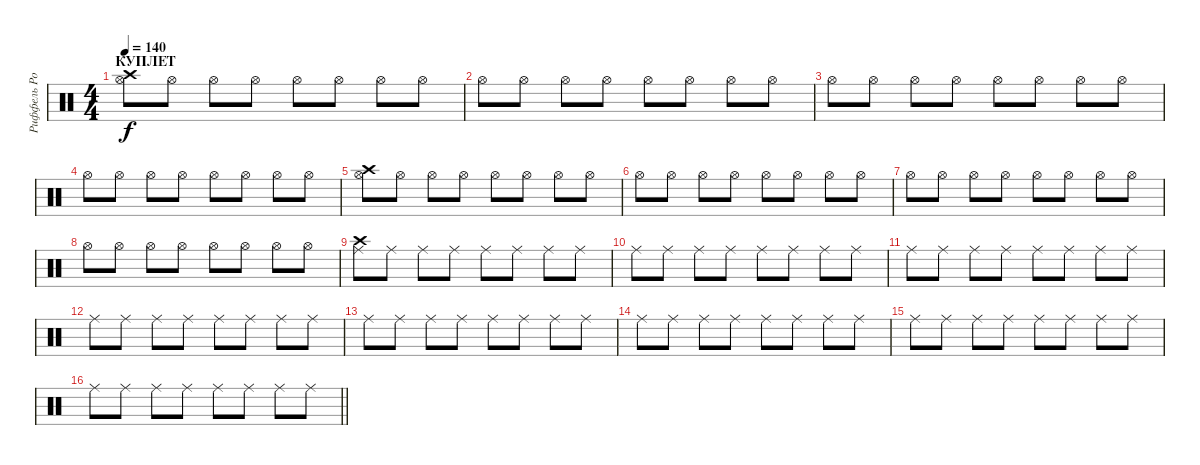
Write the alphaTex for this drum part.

\track ("Риффель Роман (хэты)" "Риффель Ро") {instrument percussion}
\staff {score}
\articulation defaults
\ts (4 4)
\section ("" "КУПЛЕТ")
\tempo 140
\clef neutral
\ks c
("Hi-Hat (open)" "Crash high (hit)").8{dy f} "Hi-Hat (open)".8 "Hi-Hat (open)".8 "Hi-Hat (open)".8 "Hi-Hat (open)".8 "Hi-Hat (open)".8 "Hi-Hat (open)".8 "Hi-Hat (open)".8 |
"Hi-Hat (open)".8 "Hi-Hat (open)".8 "Hi-Hat (open)".8 "Hi-Hat (open)".8 "Hi-Hat (open)".8 "Hi-Hat (open)".8 "Hi-Hat (open)".8 "Hi-Hat (open)".8 |
"Hi-Hat (open)".8 "Hi-Hat (open)".8 "Hi-Hat (open)".8 "Hi-Hat (open)".8 "Hi-Hat (open)".8 "Hi-Hat (open)".8 "Hi-Hat (open)".8 "Hi-Hat (open)".8 |
"Hi-Hat (open)".8 "Hi-Hat (open)".8 "Hi-Hat (open)".8 "Hi-Hat (open)".8 "Hi-Hat (open)".8 "Hi-Hat (open)".8 "Hi-Hat (open)".8 "Hi-Hat (open)".8 |
("Hi-Hat (open)" "Crash high (hit)").8 "Hi-Hat (open)".8 "Hi-Hat (open)".8 "Hi-Hat (open)".8 "Hi-Hat (open)".8 "Hi-Hat (open)".8 "Hi-Hat (open)".8 "Hi-Hat (open)".8 |
"Hi-Hat (open)".8 "Hi-Hat (open)".8 "Hi-Hat (open)".8 "Hi-Hat (open)".8 "Hi-Hat (open)".8 "Hi-Hat (open)".8 "Hi-Hat (open)".8 "Hi-Hat (open)".8 |
"Hi-Hat (open)".8 "Hi-Hat (open)".8 "Hi-Hat (open)".8 "Hi-Hat (open)".8 "Hi-Hat (open)".8 "Hi-Hat (open)".8 "Hi-Hat (open)".8 "Hi-Hat (open)".8 |
"Hi-Hat (open)".8 "Hi-Hat (open)".8 "Hi-Hat (open)".8 "Hi-Hat (open)".8 "Hi-Hat (open)".8 "Hi-Hat (open)".8 "Hi-Hat (open)".8 "Hi-Hat (open)".8 |
("Ride (middle)" "Crash high (hit)").8 "Ride (middle)".8 "Ride (middle)".8 "Ride (middle)".8 "Ride (middle)".8 "Ride (middle)".8 "Ride (middle)".8 "Ride (middle)".8 |
"Ride (middle)".8 "Ride (middle)".8 "Ride (middle)".8 "Ride (middle)".8 "Ride (middle)".8 "Ride (middle)".8 "Ride (middle)".8 "Ride (middle)".8 |
"Ride (middle)".8 "Ride (middle)".8 "Ride (middle)".8 "Ride (middle)".8 "Ride (middle)".8 "Ride (middle)".8 "Ride (middle)".8 "Ride (middle)".8 |
"Ride (middle)".8 "Ride (middle)".8 "Ride (middle)".8 "Ride (middle)".8 "Ride (middle)".8 "Ride (middle)".8 "Ride (middle)".8 "Ride (middle)".8 |
"Ride (middle)".8 "Ride (middle)".8 "Ride (middle)".8 "Ride (middle)".8 "Ride (middle)".8 "Ride (middle)".8 "Ride (middle)".8 "Ride (middle)".8 |
"Ride (middle)".8 "Ride (middle)".8 "Ride (middle)".8 "Ride (middle)".8 "Ride (middle)".8 "Ride (middle)".8 "Ride (middle)".8 "Ride (middle)".8 |
"Ride (middle)".8 "Ride (middle)".8 "Ride (middle)".8 "Ride (middle)".8 "Ride (middle)".8 "Ride (middle)".8 "Ride (middle)".8 "Ride (middle)".8 |
\barLineRight lightlight "Ride (middle)".8 "Ride (middle)".8 "Ride (middle)".8 "Ride (middle)".8 "Ride (middle)".8 "Ride (middle)".8 "Ride (middle)".8 "Ride (middle)".8
